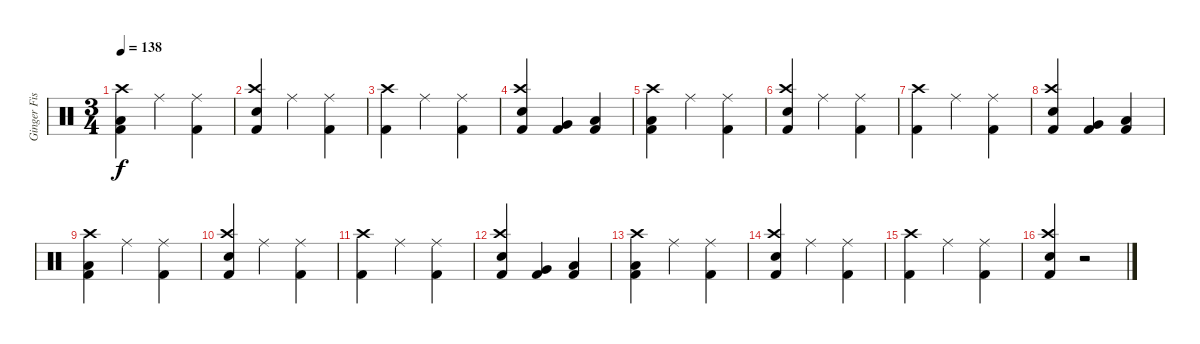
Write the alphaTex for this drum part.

\track ("Ginger Fish (Drums)" "Ginger Fis") {instrument percussion}
\staff {score}
\articulation defaults
\ts (3 4)
\tempo 138
\clef neutral
\ks c
("Kick (hit) 2" "Low Floor Tom (hit)" "Crash high (hit)").4{dy f} "Ride (middle)".4 ("Ride (middle)" "Kick (hit) 2").4 |
("Kick (hit) 2" "Snare (hit) 2" "Crash high (hit)").4 "Ride (middle)".4 ("Kick (hit) 2" "Ride (middle)").4 |
("Kick (hit) 2" "Crash high (hit)").4 "Ride (middle)".4 ("Kick (hit) 2" "Ride (middle)").4 |
("Snare (hit) 2" "Kick (hit) 2" "Crash high (hit)").4 ("Very Low Tom (hit)" "Kick (hit) 2").4 ("Low Floor Tom (hit)" "Kick (hit) 2").4 |
("Kick (hit) 2" "Low Floor Tom (hit)" "Crash high (hit)").4 "Ride (middle)".4 ("Ride (middle)" "Kick (hit) 2").4 |
("Kick (hit) 2" "Snare (hit) 2" "Crash high (hit)").4 "Ride (middle)".4 ("Kick (hit) 2" "Ride (middle)").4 |
("Kick (hit) 2" "Crash high (hit)").4 "Ride (middle)".4 ("Kick (hit) 2" "Ride (middle)").4 |
("Snare (hit) 2" "Kick (hit) 2" "Crash high (hit)").4 ("Very Low Tom (hit)" "Kick (hit) 2").4 ("Low Floor Tom (hit)" "Kick (hit) 2").4 |
("Kick (hit) 2" "Low Floor Tom (hit)" "Crash high (hit)").4 "Ride (middle)".4 ("Ride (middle)" "Kick (hit) 2").4 |
("Kick (hit) 2" "Snare (hit) 2" "Crash high (hit)").4 "Ride (middle)".4 ("Kick (hit) 2" "Ride (middle)").4 |
("Kick (hit) 2" "Crash high (hit)").4 "Ride (middle)".4 ("Kick (hit) 2" "Ride (middle)").4 |
("Snare (hit) 2" "Kick (hit) 2" "Crash high (hit)").4 ("Very Low Tom (hit)" "Kick (hit) 2").4 ("Low Floor Tom (hit)" "Kick (hit) 2").4 |
("Kick (hit) 2" "Low Floor Tom (hit)" "Crash high (hit)").4 "Ride (middle)".4 ("Ride (middle)" "Kick (hit) 2").4 |
("Kick (hit) 2" "Snare (hit) 2" "Crash high (hit)").4 "Ride (middle)".4 ("Kick (hit) 2" "Ride (middle)").4 |
("Kick (hit) 2" "Crash high (hit)").4 "Ride (middle)".4 ("Kick (hit) 2" "Ride (middle)").4 |
("Snare (hit) 2" "Kick (hit) 2" "Crash high (hit)").4 r.2
